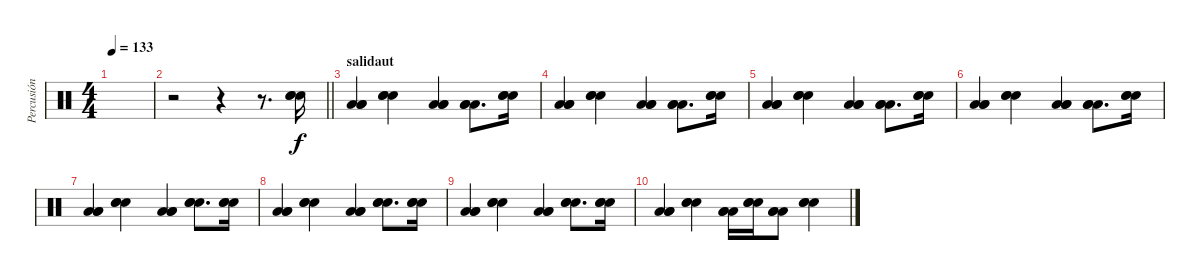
\track ("Percusión" "Percusión") {instrument percussion}
\staff {score}
\articulation defaults
\ts (4 4)
\tempo 133
\clef neutral
\ks c
|
\barLineRight lightlight
r.2 r.4 r.8{d} ("Snare (hit) 2" "Snare (hit) 2" "Snare (hit) 2").16 |
\section ("" "salidaut")
("Low Tom (hit)" "Low Tom (hit)" "Low Tom (hit)").4 ("Snare (hit) 2" "Snare (hit) 2" "Snare (hit) 2").4 ("Low Tom (hit)" "Low Tom (hit)" "Low Tom (hit)").4 ("Low Tom (hit)" "Low Tom (hit)" "Low Tom (hit)").8{d} ("Snare (hit) 2" "Snare (hit) 2" "Snare (hit) 2").16 |
("Low Tom (hit)" "Low Tom (hit)" "Low Tom (hit)").4 ("Snare (hit) 2" "Snare (hit) 2" "Snare (hit) 2").4 ("Low Tom (hit)" "Low Tom (hit)" "Low Tom (hit)").4 ("Low Tom (hit)" "Low Tom (hit)" "Low Tom (hit)").8{d} ("Snare (hit) 2" "Snare (hit) 2" "Snare (hit) 2").16 |
("Low Tom (hit)" "Low Tom (hit)" "Low Tom (hit)").4 ("Snare (hit) 2" "Snare (hit) 2" "Snare (hit) 2").4 ("Low Tom (hit)" "Low Tom (hit)" "Low Tom (hit)").4 ("Low Tom (hit)" "Low Tom (hit)" "Low Tom (hit)").8{d} ("Snare (hit) 2" "Snare (hit) 2" "Snare (hit) 2").16 |
("Low Tom (hit)" "Low Tom (hit)" "Low Tom (hit)").4 ("Snare (hit) 2" "Snare (hit) 2" "Snare (hit) 2").4 ("Low Tom (hit)" "Low Tom (hit)" "Low Tom (hit)").4 ("Low Tom (hit)" "Low Tom (hit)" "Low Tom (hit)").8{d} ("Snare (hit) 2" "Snare (hit) 2" "Snare (hit) 2").16 |
("Low Tom (hit)" "Low Tom (hit)" "Low Tom (hit)").4 ("Snare (hit) 2" "Snare (hit) 2" "Snare (hit) 2").4 ("Low Tom (hit)" "Low Tom (hit)" "Low Tom (hit)").4 ("Snare (hit) 2" "Snare (hit) 2" "Snare (hit) 2").8{d} ("Snare (hit) 2" "Snare (hit) 2" "Snare (hit) 2").16 |
("Low Tom (hit)" "Low Tom (hit)" "Low Tom (hit)").4 ("Snare (hit) 2" "Snare (hit) 2" "Snare (hit) 2").4 ("Low Tom (hit)" "Low Tom (hit)" "Low Tom (hit)").4 ("Snare (hit) 2" "Snare (hit) 2" "Snare (hit) 2").8{d} ("Snare (hit) 2" "Snare (hit) 2" "Snare (hit) 2").16 |
("Low Tom (hit)" "Low Tom (hit)" "Low Tom (hit)").4 ("Snare (hit) 2" "Snare (hit) 2" "Snare (hit) 2").4 ("Low Tom (hit)" "Low Tom (hit)" "Low Tom (hit)").4 ("Snare (hit) 2" "Snare (hit) 2" "Snare (hit) 2").8{d} ("Snare (hit) 2" "Snare (hit) 2" "Snare (hit) 2").16 |
("Low Tom (hit)" "Low Tom (hit)" "Low Tom (hit)").4 ("Snare (hit) 2" "Snare (hit) 2" "Snare (hit) 2").4 ("Low Tom (hit)" "Low Tom (hit)" "Low Tom (hit)").16 ("Snare (hit) 2" "Snare (hit) 2" "Snare (hit) 2").16 ("Low Tom (hit)" "Low Tom (hit)" "Low Tom (hit)").8 ("Snare (hit) 2" "Snare (hit) 2" "Snare (hit) 2").4
